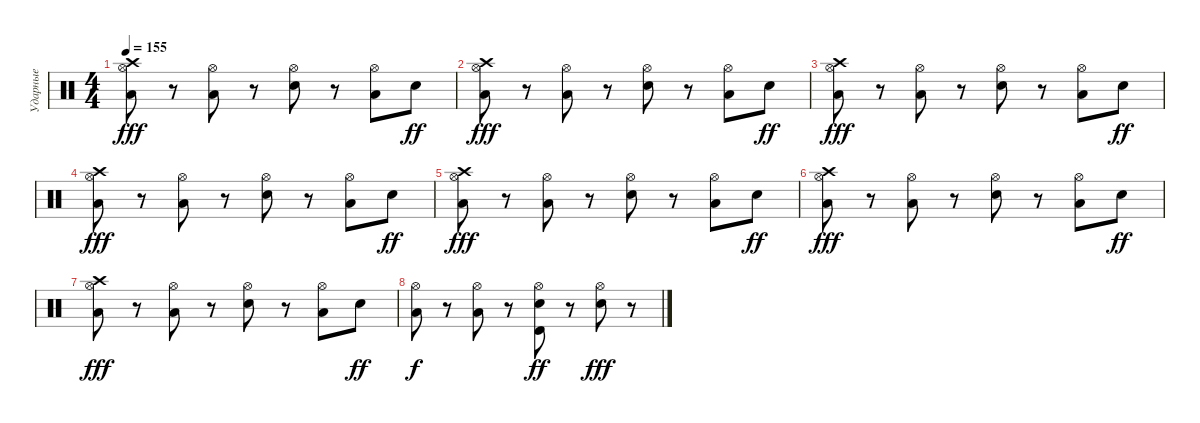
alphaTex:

\track ("Ударные" "Ударные") {instrument percussion}
\staff {score}
\articulation defaults
\ts (4 4)
\tempo 155
\clef neutral
\ks c
("Hi-Hat (open)" "Crash high (hit)" "Low Floor Tom (hit)").8{dy fff} r.8 ("Hi-Hat (open)" "Low Tom (hit)").8 r.8 ("Hi-Hat (open)" "Snare (hit) 2").8 r.8 ("Hi-Hat (open)" "Low Tom (hit)").8 "Snare (hit) 2".8{dy ff} |
("Hi-Hat (open)" "Crash high (hit)" "Low Floor Tom (hit)").8{dy fff} r.8 ("Hi-Hat (open)" "Low Tom (hit)").8 r.8 ("Hi-Hat (open)" "Snare (hit) 2").8 r.8 ("Hi-Hat (open)" "Low Tom (hit)").8 "Snare (hit) 2".8{dy ff} |
("Hi-Hat (open)" "Crash high (hit)" "Low Floor Tom (hit)").8{dy fff} r.8 ("Hi-Hat (open)" "Low Tom (hit)").8 r.8 ("Hi-Hat (open)" "Snare (hit) 2").8 r.8 ("Hi-Hat (open)" "Low Tom (hit)").8 "Snare (hit) 2".8{dy ff} |
("Hi-Hat (open)" "Crash high (hit)" "Low Floor Tom (hit)").8{dy fff} r.8 ("Hi-Hat (open)" "Low Tom (hit)").8 r.8 ("Hi-Hat (open)" "Snare (hit) 2").8 r.8 ("Hi-Hat (open)" "Low Tom (hit)").8 "Snare (hit) 2".8{dy ff} |
("Hi-Hat (open)" "Crash high (hit)" "Low Floor Tom (hit)").8{dy fff} r.8 ("Hi-Hat (open)" "Low Tom (hit)").8 r.8 ("Hi-Hat (open)" "Snare (hit) 2").8 r.8 ("Hi-Hat (open)" "Low Tom (hit)").8 "Snare (hit) 2".8{dy ff} |
("Hi-Hat (open)" "Crash high (hit)" "Low Floor Tom (hit)").8{dy fff} r.8 ("Hi-Hat (open)" "Low Tom (hit)").8 r.8 ("Hi-Hat (open)" "Snare (hit) 2").8 r.8 ("Hi-Hat (open)" "Low Tom (hit)").8 "Snare (hit) 2".8{dy ff} |
("Hi-Hat (open)" "Crash high (hit)" "Low Floor Tom (hit)").8{dy fff} r.8 ("Hi-Hat (open)" "Low Tom (hit)").8 r.8 ("Hi-Hat (open)" "Snare (hit) 2").8 r.8 ("Hi-Hat (open)" "Low Tom (hit)").8 "Snare (hit) 2".8{dy ff} |
("Hi-Hat (open)" "Low Tom (hit)").8{dy f} r.8 ("Hi-Hat (open)" "Low Tom (hit)").8 r.8 ("Hi-Hat (open)" "Snare (hit) 2" "Timbale high (hit)").8{dy ff} r.8 ("Hi-Hat (open)" "Snare (hit) 2").8{dy fff} r.8
